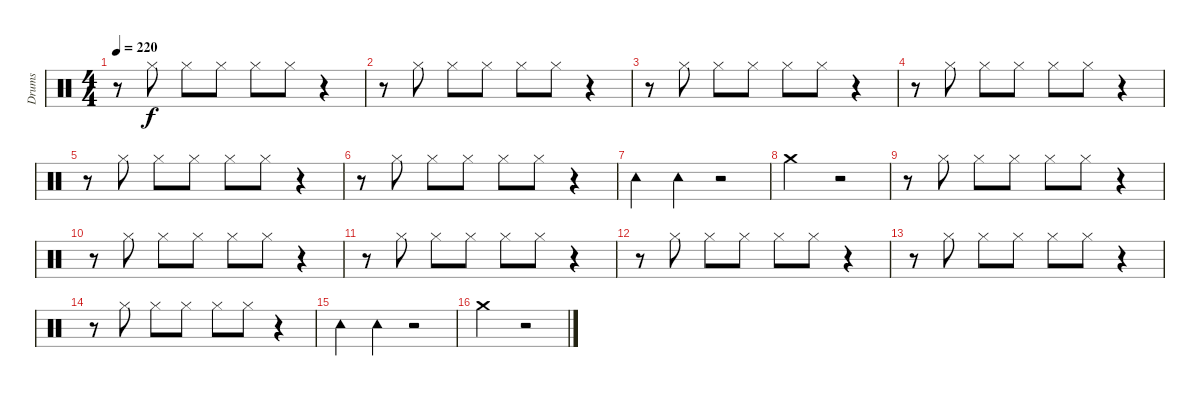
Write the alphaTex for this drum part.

\track ("Drums" "Drums") {instrument percussion}
\staff {score}
\articulation defaults
\ts (4 4)
\tempo 220
\clef neutral
\ks c
r.8{dy f} "Hi-Hat (closed)".8 "Hi-Hat (closed)".8 "Hi-Hat (closed)".8 "Hi-Hat (closed)".8 "Hi-Hat (closed)".8 r.4 |
r.8 "Hi-Hat (closed)".8 "Hi-Hat (closed)".8 "Hi-Hat (closed)".8 "Hi-Hat (closed)".8 "Hi-Hat (closed)".8 r.4 |
r.8 "Hi-Hat (closed)".8 "Hi-Hat (closed)".8 "Hi-Hat (closed)".8 "Hi-Hat (closed)".8 "Hi-Hat (closed)".8 r.4 |
r.8 "Hi-Hat (closed)".8 "Hi-Hat (closed)".8 "Hi-Hat (closed)".8 "Hi-Hat (closed)".8 "Hi-Hat (closed)".8 r.4 |
r.8 "Hi-Hat (closed)".8 "Hi-Hat (closed)".8 "Hi-Hat (closed)".8 "Hi-Hat (closed)".8 "Hi-Hat (closed)".8 r.4 |
r.8 "Hi-Hat (closed)".8 "Hi-Hat (closed)".8 "Hi-Hat (closed)".8 "Hi-Hat (closed)".8 "Hi-Hat (closed)".8 r.4 |
"Tambourine (hit)".4 "Tambourine (hit)".4 r.2 |
"Crash medium (hit)".2 r.2 |
r.8 "Hi-Hat (closed)".8 "Hi-Hat (closed)".8 "Hi-Hat (closed)".8 "Hi-Hat (closed)".8 "Hi-Hat (closed)".8 r.4 |
r.8 "Hi-Hat (closed)".8 "Hi-Hat (closed)".8 "Hi-Hat (closed)".8 "Hi-Hat (closed)".8 "Hi-Hat (closed)".8 r.4 |
r.8 "Hi-Hat (closed)".8 "Hi-Hat (closed)".8 "Hi-Hat (closed)".8 "Hi-Hat (closed)".8 "Hi-Hat (closed)".8 r.4 |
r.8 "Hi-Hat (closed)".8 "Hi-Hat (closed)".8 "Hi-Hat (closed)".8 "Hi-Hat (closed)".8 "Hi-Hat (closed)".8 r.4 |
r.8 "Hi-Hat (closed)".8 "Hi-Hat (closed)".8 "Hi-Hat (closed)".8 "Hi-Hat (closed)".8 "Hi-Hat (closed)".8 r.4 |
r.8 "Hi-Hat (closed)".8 "Hi-Hat (closed)".8 "Hi-Hat (closed)".8 "Hi-Hat (closed)".8 "Hi-Hat (closed)".8 r.4 |
"Tambourine (hit)".4 "Tambourine (hit)".4 r.2 |
"Crash medium (hit)".2 r.2
